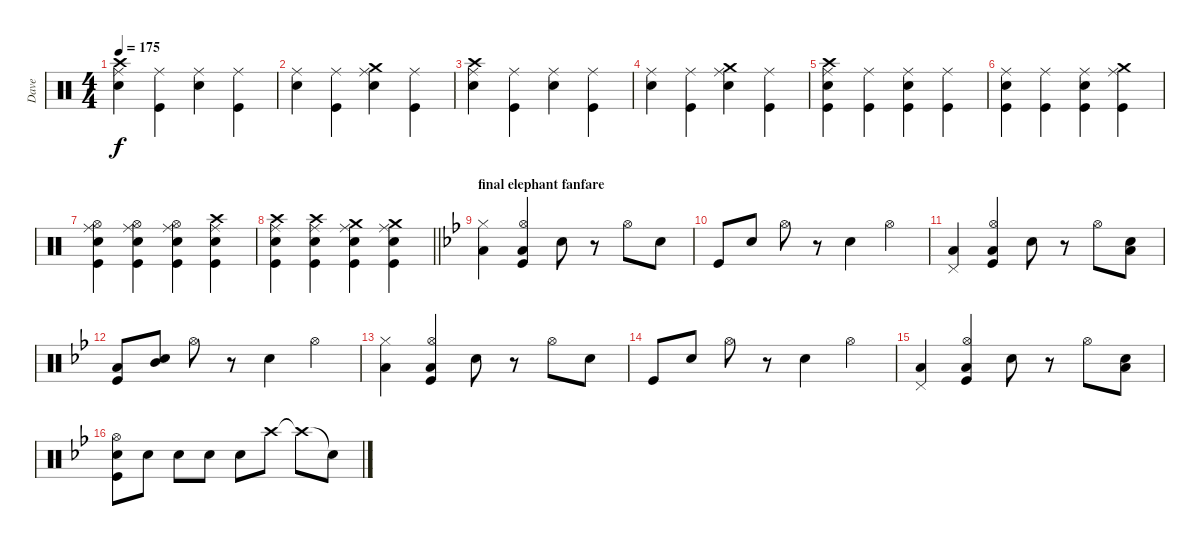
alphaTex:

\track ("Dave" "Dave") {instrument percussion}
\staff {score}
\articulation defaults
\ts (4 4)
\tempo 175
\clef neutral
\ks c
("Crash high (hit)" "Ride (middle)" "Snare (hit) 2").4{dy f} ("Ride (middle)" "Kick (hit)").4 ("Ride (middle)" "Snare (hit) 2").4 ("Ride (middle)" "Kick (hit)").4 |
("Ride (middle)" "Snare (hit) 2").4 ("Ride (middle)" "Kick (hit)").4 ("Crash medium (hit)" "Ride (middle)" "Snare (hit) 2").4 ("Ride (middle)" "Kick (hit)").4 |
("Crash high (hit)" "Ride (middle)" "Snare (hit) 2").4 ("Ride (middle)" "Kick (hit)").4 ("Ride (middle)" "Snare (hit) 2").4 ("Ride (middle)" "Kick (hit)").4 |
("Ride (middle)" "Snare (hit) 2").4 ("Ride (middle)" "Kick (hit)").4 ("Crash medium (hit)" "Ride (middle)" "Snare (hit) 2").4 ("Ride (middle)" "Kick (hit)").4 |
("Crash high (hit)" "Ride (middle)" "Snare (hit) 2" "Kick (hit)").4 ("Ride (middle)" "Kick (hit)").4 ("Ride (middle)" "Snare (hit) 2" "Kick (hit)").4 ("Ride (middle)" "Kick (hit)").4 |
("Ride (middle)" "Snare (hit) 2" "Kick (hit)").4 ("Ride (middle)" "Kick (hit)").4 ("Ride (middle)" "Snare (hit) 2" "Kick (hit)").4 ("Crash medium (hit)" "Ride (middle)" "Kick (hit)").4 |
("Hi-Hat (open)" "Ride (middle)" "Snare (hit) 2" "Kick (hit)").4 ("Hi-Hat (open)" "Ride (middle)" "Snare (hit) 2" "Kick (hit)").4 ("Hi-Hat (open)" "Ride (middle)" "Snare (hit) 2" "Kick (hit)").4 ("Crash high (hit)" "Ride (middle)" "Snare (hit) 2" "Kick (hit)").4 |
\barLineRight lightlight
("Crash high (hit)" "Ride (middle)" "Snare (hit) 2" "Kick (hit)").4 ("Crash high (hit)" "Ride (middle)" "Snare (hit) 2" "Kick (hit)").4 ("Crash medium (hit)" "Ride (middle)" "Snare (hit) 2" "Kick (hit)").4 ("Crash medium (hit)" "Ride (middle)" "Snare (hit) 2" "Kick (hit)").4 |
\section ("" "final elephant fanfare")
\ks gminor
("Hi-Hat (closed)" "Low Floor Tom (hit)").4 ("Hi-Hat (open)" "Low Floor Tom (hit)" "Kick (hit)").4 "Snare (hit) 2".8 r.8 "Hi-Hat (open)".8 "Snare (hit) 2".8 |
"Kick (hit)".8 "Snare (hit) 2".8 "Hi-Hat (open)".8 r.8 "Snare (hit) 2".4 "Hi-Hat (open)".4 |
("Pedal Hi-Hat (hit)" "Low Floor Tom (hit)").4 ("Hi-Hat (open)" "Low Floor Tom (hit)" "Kick (hit)").4 "Snare (hit) 2".8 r.8 "Hi-Hat (open)".8 ("Snare (hit) 2" "Low Floor Tom (hit)").8 |
("Low Tom (hit)" "Kick (hit)").8 ("Snare (hit) 2" "Mid Tom (hit)").8 "Hi-Hat (open)".8 r.8 "Snare (hit) 2".4 "Hi-Hat (open)".4 |
("Hi-Hat (closed)" "Low Floor Tom (hit)").4 ("Hi-Hat (open)" "Low Floor Tom (hit)" "Kick (hit)").4 "Snare (hit) 2".8 r.8 "Hi-Hat (open)".8 "Snare (hit) 2".8 |
"Kick (hit)".8 "Snare (hit) 2".8 "Hi-Hat (open)".8 r.8 "Snare (hit) 2".4 "Hi-Hat (open)".4 |
("Pedal Hi-Hat (hit)" "Low Floor Tom (hit)").4 ("Hi-Hat (open)" "Low Floor Tom (hit)" "Kick (hit)").4 "Snare (hit) 2".8 r.8 "Hi-Hat (open)".8 ("Snare (hit) 2" "Low Floor Tom (hit)").8 |
("Hi-Hat (open)" "Snare (hit) 2" "Kick (hit)").8 "Snare (hit) 2".8 "Snare (hit) 2".8 "Snare (hit) 2".8 "Snare (hit) 2".8 "Crash high (hit)".8 "Crash high (hit)"{t}.8 "Snare (hit)"{t}.8
